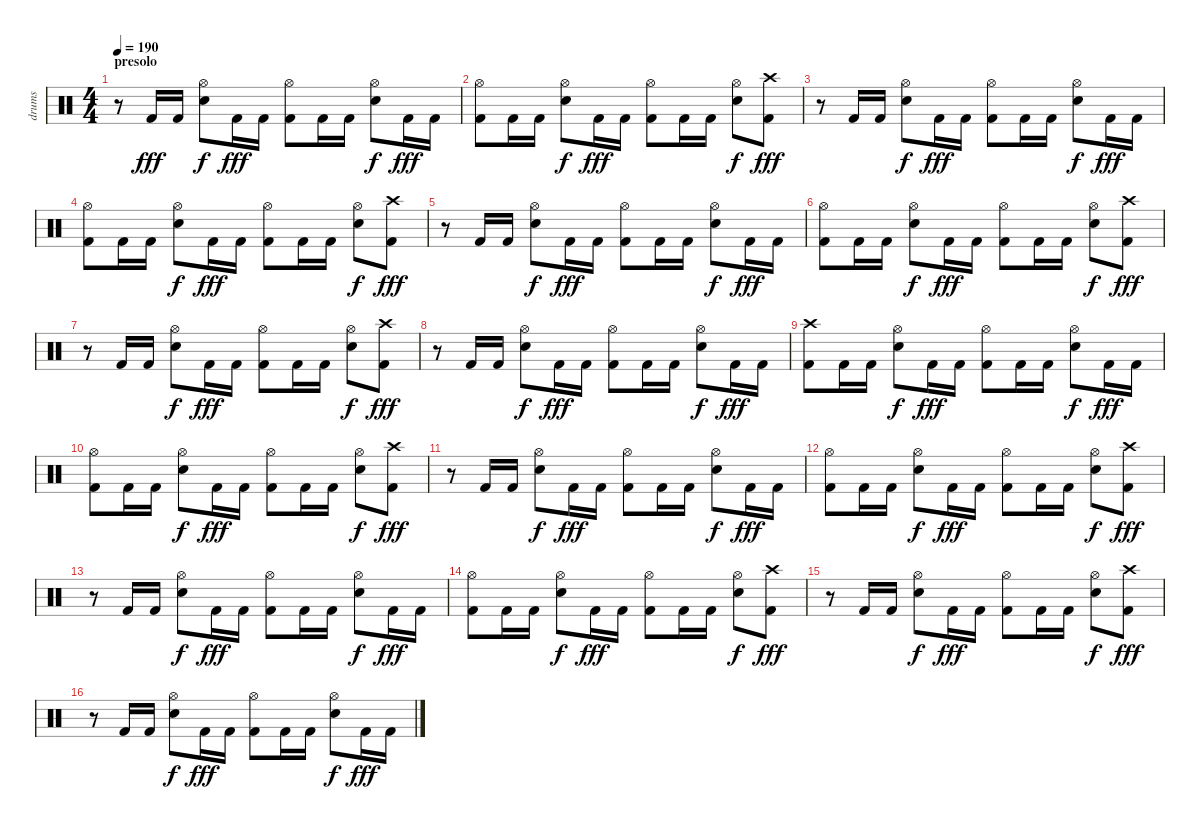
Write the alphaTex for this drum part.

\track ("drums" "drums") {instrument percussion}
\staff {score}
\articulation defaults
\ts (4 4)
\section ("" "presolo ")
\tempo 190
\clef neutral
\ks c
r.8{dy fff} "Kick (hit) 2".16 "Kick (hit) 2".16 ("Hi-Hat (open)" "Snare (hit) 2").8{dy f} "Kick (hit) 2".16{dy fff} "Kick (hit) 2".16 ("Hi-Hat (open)" "Kick (hit) 2").8 "Kick (hit) 2".16 "Kick (hit) 2".16 ("Hi-Hat (open)" "Snare (hit) 2").8{dy f} "Kick (hit) 2".16{dy fff} "Kick (hit) 2".16 |
("Hi-Hat (open)" "Kick (hit) 2").8 "Kick (hit) 2".16 "Kick (hit) 2".16 ("Hi-Hat (open)" "Snare (hit) 2").8{dy f} "Kick (hit) 2".16{dy fff} "Kick (hit) 2".16 ("Hi-Hat (open)" "Kick (hit) 2").8 "Kick (hit) 2".16 "Kick (hit) 2".16 ("Hi-Hat (open)" "Snare (hit) 2").8{dy f} ("Crash high (hit)" "Kick (hit) 2").8{dy fff} |
r.8 "Kick (hit) 2".16 "Kick (hit) 2".16 ("Hi-Hat (open)" "Snare (hit) 2").8{dy f} "Kick (hit) 2".16{dy fff} "Kick (hit) 2".16 ("Hi-Hat (open)" "Kick (hit) 2").8 "Kick (hit) 2".16 "Kick (hit) 2".16 ("Hi-Hat (open)" "Snare (hit) 2").8{dy f} "Kick (hit) 2".16{dy fff} "Kick (hit) 2".16 |
("Hi-Hat (open)" "Kick (hit) 2").8 "Kick (hit) 2".16 "Kick (hit) 2".16 ("Hi-Hat (open)" "Snare (hit) 2").8{dy f} "Kick (hit) 2".16{dy fff} "Kick (hit) 2".16 ("Hi-Hat (open)" "Kick (hit) 2").8 "Kick (hit) 2".16 "Kick (hit) 2".16 ("Hi-Hat (open)" "Snare (hit) 2").8{dy f} ("Crash high (hit)" "Kick (hit) 2").8{dy fff} |
r.8 "Kick (hit) 2".16 "Kick (hit) 2".16 ("Hi-Hat (open)" "Snare (hit) 2").8{dy f} "Kick (hit) 2".16{dy fff} "Kick (hit) 2".16 ("Hi-Hat (open)" "Kick (hit) 2").8 "Kick (hit) 2".16 "Kick (hit) 2".16 ("Hi-Hat (open)" "Snare (hit) 2").8{dy f} "Kick (hit) 2".16{dy fff} "Kick (hit) 2".16 |
("Hi-Hat (open)" "Kick (hit) 2").8 "Kick (hit) 2".16 "Kick (hit) 2".16 ("Hi-Hat (open)" "Snare (hit) 2").8{dy f} "Kick (hit) 2".16{dy fff} "Kick (hit) 2".16 ("Hi-Hat (open)" "Kick (hit) 2").8 "Kick (hit) 2".16 "Kick (hit) 2".16 ("Hi-Hat (open)" "Snare (hit) 2").8{dy f} ("Crash high (hit)" "Kick (hit) 2").8{dy fff} |
r.8 "Kick (hit) 2".16 "Kick (hit) 2".16 ("Hi-Hat (open)" "Snare (hit) 2").8{dy f} "Kick (hit) 2".16{dy fff} "Kick (hit) 2".16 ("Hi-Hat (open)" "Kick (hit) 2").8 "Kick (hit) 2".16 "Kick (hit) 2".16 ("Hi-Hat (open)" "Snare (hit) 2").8{dy f} ("Crash high (hit)" "Kick (hit) 2").8{dy fff} |
r.8 "Kick (hit) 2".16 "Kick (hit) 2".16 ("Hi-Hat (open)" "Snare (hit) 2").8{dy f} "Kick (hit) 2".16{dy fff} "Kick (hit) 2".16 ("Hi-Hat (open)" "Kick (hit) 2").8 "Kick (hit) 2".16 "Kick (hit) 2".16 ("Hi-Hat (open)" "Snare (hit) 2").8{dy f} "Kick (hit) 2".16{dy fff} "Kick (hit) 2".16 |
("Crash high (hit)" "Kick (hit) 2").8 "Kick (hit) 2".16 "Kick (hit) 2".16 ("Hi-Hat (open)" "Snare (hit) 2").8{dy f} "Kick (hit) 2".16{dy fff} "Kick (hit) 2".16 ("Hi-Hat (open)" "Kick (hit) 2").8 "Kick (hit) 2".16 "Kick (hit) 2".16 ("Hi-Hat (open)" "Snare (hit) 2").8{dy f} "Kick (hit) 2".16{dy fff} "Kick (hit) 2".16 |
("Hi-Hat (open)" "Kick (hit) 2").8 "Kick (hit) 2".16 "Kick (hit) 2".16 ("Hi-Hat (open)" "Snare (hit) 2").8{dy f} "Kick (hit) 2".16{dy fff} "Kick (hit) 2".16 ("Hi-Hat (open)" "Kick (hit) 2").8 "Kick (hit) 2".16 "Kick (hit) 2".16 ("Hi-Hat (open)" "Snare (hit) 2").8{dy f} ("Crash high (hit)" "Kick (hit) 2").8{dy fff} |
r.8 "Kick (hit) 2".16 "Kick (hit) 2".16 ("Hi-Hat (open)" "Snare (hit) 2").8{dy f} "Kick (hit) 2".16{dy fff} "Kick (hit) 2".16 ("Hi-Hat (open)" "Kick (hit) 2").8 "Kick (hit) 2".16 "Kick (hit) 2".16 ("Hi-Hat (open)" "Snare (hit) 2").8{dy f} "Kick (hit) 2".16{dy fff} "Kick (hit) 2".16 |
("Hi-Hat (open)" "Kick (hit) 2").8 "Kick (hit) 2".16 "Kick (hit) 2".16 ("Hi-Hat (open)" "Snare (hit) 2").8{dy f} "Kick (hit) 2".16{dy fff} "Kick (hit) 2".16 ("Hi-Hat (open)" "Kick (hit) 2").8 "Kick (hit) 2".16 "Kick (hit) 2".16 ("Hi-Hat (open)" "Snare (hit) 2").8{dy f} ("Crash high (hit)" "Kick (hit) 2").8{dy fff} |
r.8 "Kick (hit) 2".16 "Kick (hit) 2".16 ("Hi-Hat (open)" "Snare (hit) 2").8{dy f} "Kick (hit) 2".16{dy fff} "Kick (hit) 2".16 ("Hi-Hat (open)" "Kick (hit) 2").8 "Kick (hit) 2".16 "Kick (hit) 2".16 ("Hi-Hat (open)" "Snare (hit) 2").8{dy f} "Kick (hit) 2".16{dy fff} "Kick (hit) 2".16 |
("Hi-Hat (open)" "Kick (hit) 2").8 "Kick (hit) 2".16 "Kick (hit) 2".16 ("Hi-Hat (open)" "Snare (hit) 2").8{dy f} "Kick (hit) 2".16{dy fff} "Kick (hit) 2".16 ("Hi-Hat (open)" "Kick (hit) 2").8 "Kick (hit) 2".16 "Kick (hit) 2".16 ("Hi-Hat (open)" "Snare (hit) 2").8{dy f} ("Crash high (hit)" "Kick (hit) 2").8{dy fff} |
r.8 "Kick (hit) 2".16 "Kick (hit) 2".16 ("Hi-Hat (open)" "Snare (hit) 2").8{dy f} "Kick (hit) 2".16{dy fff} "Kick (hit) 2".16 ("Hi-Hat (open)" "Kick (hit) 2").8 "Kick (hit) 2".16 "Kick (hit) 2".16 ("Hi-Hat (open)" "Snare (hit) 2").8{dy f} ("Crash high (hit)" "Kick (hit) 2").8{dy fff} |
r.8 "Kick (hit) 2".16 "Kick (hit) 2".16 ("Hi-Hat (open)" "Snare (hit) 2").8{dy f} "Kick (hit) 2".16{dy fff} "Kick (hit) 2".16 ("Hi-Hat (open)" "Kick (hit) 2").8 "Kick (hit) 2".16 "Kick (hit) 2".16 ("Hi-Hat (open)" "Snare (hit) 2").8{dy f} "Kick (hit) 2".16{dy fff} "Kick (hit) 2".16
